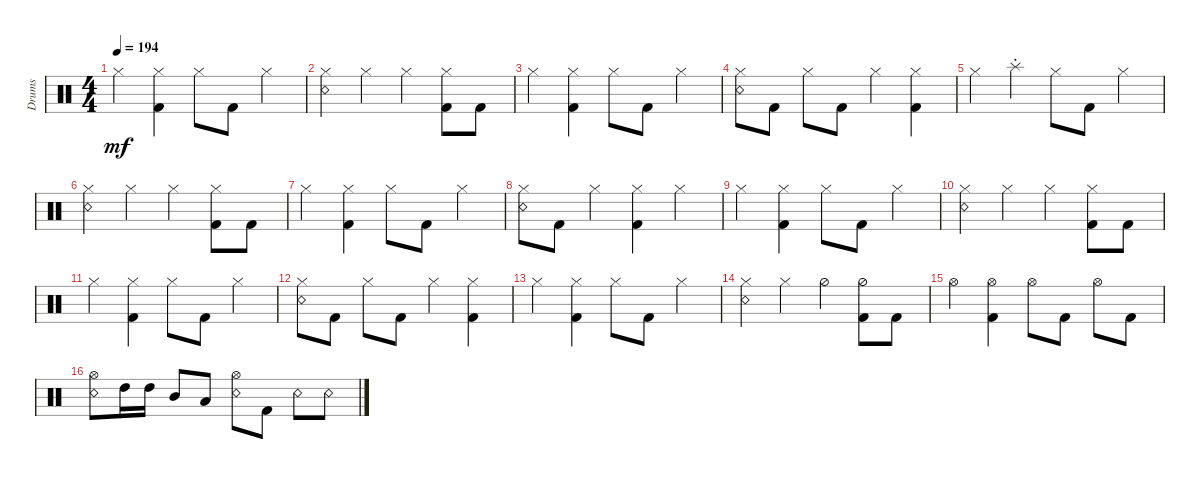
\track ("Drums" "Drums") {instrument percussion}
\staff {score}
\articulation defaults
\ts (4 4)
\tempo 194
\clef neutral
\ks c "Hi-Hat (closed)".4{dy mf}
("Hi-Hat (closed)" "Kick (hit) 2").4 "Hi-Hat (closed)".8 "Kick (hit) 2".8 "Hi-Hat (closed)".4 |
("Hi-Hat (closed)" "Snare (rim shot)").4 "Hi-Hat (closed)".4 "Hi-Hat (closed)".4 ("Hi-Hat (closed)" "Kick (hit) 2").8 "Kick (hit) 2".8 |
"Hi-Hat (closed)".4 ("Hi-Hat (closed)" "Kick (hit) 2").4 "Hi-Hat (closed)".8 "Kick (hit) 2".8 "Hi-Hat (closed)".4 |
("Hi-Hat (closed)" "Snare (rim shot)").8 "Kick (hit) 2".8 "Hi-Hat (closed)".8 "Kick (hit) 2".8 "Hi-Hat (closed)".4 ("Hi-Hat (closed)" "Kick (hit) 2").4 |
"Hi-Hat (closed)".4 "Splash (choke)".4 "Hi-Hat (closed)".8 "Kick (hit) 2".8 "Hi-Hat (closed)".4 |
("Hi-Hat (closed)" "Snare (rim shot)").4 "Hi-Hat (closed)".4 "Hi-Hat (closed)".4 ("Hi-Hat (closed)" "Kick (hit) 2").8 "Kick (hit) 2".8 |
"Hi-Hat (closed)".4 ("Hi-Hat (closed)" "Kick (hit) 2").4 "Hi-Hat (closed)".8 "Kick (hit) 2".8 "Hi-Hat (closed)".4 |
("Hi-Hat (closed)" "Snare (rim shot)").8 "Kick (hit) 2".8 "Hi-Hat (closed)".4 ("Hi-Hat (closed)" "Kick (hit) 2").4 "Hi-Hat (closed)".4 |
"Hi-Hat (closed)".4 ("Hi-Hat (closed)" "Kick (hit) 2").4 "Hi-Hat (closed)".8 "Kick (hit) 2".8 "Hi-Hat (closed)".4 |
("Hi-Hat (closed)" "Snare (rim shot)").4 "Hi-Hat (closed)".4 "Hi-Hat (closed)".4 ("Hi-Hat (closed)" "Kick (hit) 2").8 "Kick (hit) 2".8 |
"Hi-Hat (closed)".4 ("Hi-Hat (closed)" "Kick (hit) 2").4 "Hi-Hat (closed)".8 "Kick (hit) 2".8 "Hi-Hat (closed)".4 |
("Hi-Hat (closed)" "Snare (rim shot)").8 "Kick (hit) 2".8 "Hi-Hat (closed)".8 "Kick (hit) 2".8 "Hi-Hat (closed)".4 ("Hi-Hat (closed)" "Kick (hit) 2").4 |
"Hi-Hat (closed)".4 ("Hi-Hat (closed)" "Kick (hit) 2").4 "Hi-Hat (closed)".8 "Kick (hit) 2".8 "Hi-Hat (closed)".4 |
("Hi-Hat (closed)" "Snare (rim shot)").4 "Hi-Hat (closed)".4 "Hi-Hat (half)".4 ("Hi-Hat (half)" "Kick (hit) 2").8 "Kick (hit) 2".8 |
"Hi-Hat (open)".4 ("Hi-Hat (open)" "Kick (hit) 2").4 "Hi-Hat (open)".8 "Kick (hit) 2".8 "Hi-Hat (open)".8 "Kick (hit) 2".8 |
("Hi-Hat (open)" "Snare (rim shot)").8 "High Tom (hit)".16 "High Tom (hit)".16 "Mid Tom (hit)".8 "Low Tom (hit)".8 ("Hi-Hat (open)" "Snare (rim shot)").8 "Kick (hit) 2".8 "Snare (rim shot)".8 "Snare (rim shot)".8
